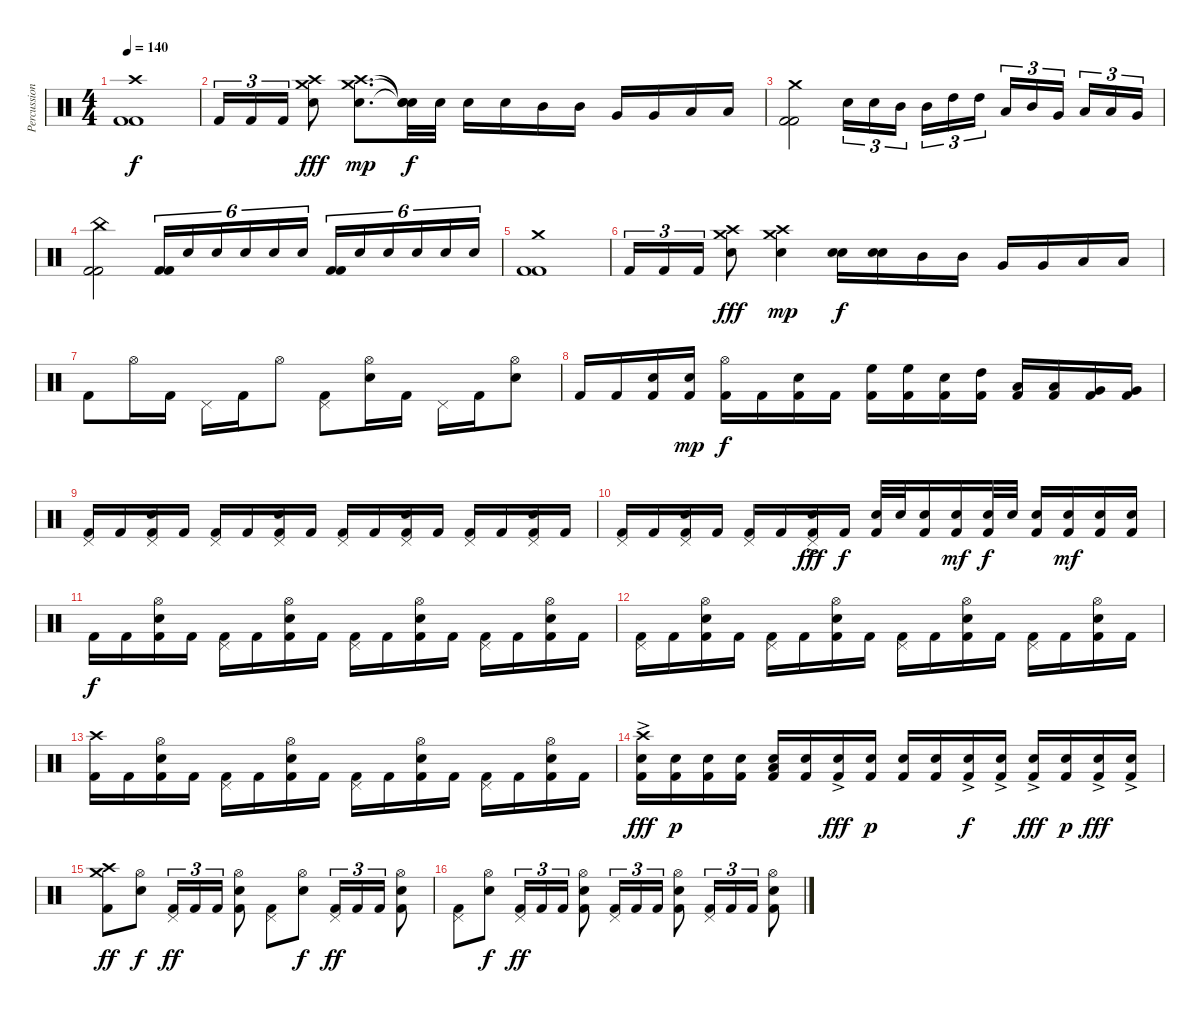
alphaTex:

\track ("Percussion" "Percussion") {instrument percussion}
\staff {score}
\articulation defaults
\ts (4 4)
\tempo 140
\clef neutral
\ks c
("Crash high (hit)" "Kick (hit) 2" "Kick (hit) 2").1{dy f} |
"Kick (hit) 2".16{tu (3 2)} "Kick (hit) 2".16{tu (3 2)} "Kick (hit) 2".16{tu (3 2)} ("Crash high (hit)" "Crash medium (hit)" "Electric Snare (hit)").8{dy fff} ("Crash high (hit)" "Crash medium (hit)" "Electric Snare (hit)").8{d dy mp} ("Snare (hit)"{t} "Snare (hit)"{t} "Snare (hit)"{t}).32{dy f} "Electric Snare (hit)".32 "Electric Snare (hit)".16 "Electric Snare (hit)".16 "Mid Tom (hit)".16 "Mid Tom (hit)".16 "Very Low Tom (hit)".16 "Very Low Tom (hit)".16 "Low Floor Tom (hit)".16 "Low Floor Tom (hit)".16 |
("Crash medium (hit)" "Kick (hit) 2" "Kick (hit) 2").2 "Electric Snare (hit)".16{tu (3 2)} "Electric Snare (hit)".16{tu (3 2)} "Mid Tom (hit)".16{tu (3 2)} "Mid Tom (hit)".16{tu (3 2)} "High Tom (hit)".16{tu (3 2)} "High Tom (hit)".16{tu (3 2)} "Low Tom (hit)".16{tu (3 2)} "Mid Tom (hit)".16{tu (3 2)} "Very Low Tom (hit)".16{tu (3 2)} "Low Tom (hit)".16{tu (3 2)} "Low Floor Tom (hit)".16{tu (3 2)} "Very Low Tom (hit)".16{tu (3 2)} |
("China (hit)" "Kick (hit) 2" "Kick (hit) 2").2 ("Kick (hit) 2" "Kick (hit) 2").16{tu (6 4)} "Electric Snare (hit)".16{tu (6 4)} "Electric Snare (hit)".16{tu (6 4)} "Electric Snare (hit)".16{tu (6 4)} "Electric Snare (hit)".16{tu (6 4)} "Electric Snare (hit)".16{tu (6 4)} ("Kick (hit) 2" "Kick (hit) 2").16{tu (6 4)} "Electric Snare (hit)".16{tu (6 4)} "Electric Snare (hit)".16{tu (6 4)} "Electric Snare (hit)".16{tu (6 4)} "Electric Snare (hit)".16{tu (6 4)} "Electric Snare (hit)".16{tu (6 4)} |
("Crash medium (hit)" "Kick (hit) 2" "Kick (hit) 2").1 |
"Kick (hit) 2".16{tu (3 2)} "Kick (hit) 2".16{tu (3 2)} "Kick (hit) 2".16{tu (3 2)} ("Crash high (hit)" "Crash medium (hit)" "Electric Snare (hit)").8{dy fff} ("Crash high (hit)" "Crash medium (hit)" "Electric Snare (hit)").4{dy mp} ("Electric Snare (hit)" "Electric Snare (hit)").16{dy f} ("Electric Snare (hit)" "Electric Snare (hit)").16 "Mid Tom (hit)".16 "Mid Tom (hit)".16 "Very Low Tom (hit)".16 "Very Low Tom (hit)".16 "Low Floor Tom (hit)".16 "Low Floor Tom (hit)".16 |
"Kick (hit) 2".8 "Hi-Hat (open)".16 "Kick (hit) 2".16 "Pedal Hi-Hat (hit)".16 "Kick (hit) 2".16 "Hi-Hat (open)".8 ("Pedal Hi-Hat (hit)" "Kick (hit) 2").8 ("Hi-Hat (open)" "Electric Snare (hit)").16 "Kick (hit) 2".16 "Pedal Hi-Hat (hit)".16 "Kick (hit) 2".16 ("Hi-Hat (open)" "Electric Snare (hit)").8 |
"Kick (hit) 2".16 "Kick (hit) 2".16 ("Electric Snare (hit)" "Kick (hit) 2").16 ("Electric Snare (hit)" "Kick (hit) 2").16{dy mp} ("Hi-Hat (open)" "Kick (hit) 2").16{dy f} "Kick (hit) 2".16 ("Electric Snare (hit)" "Kick (hit) 2").16 "Kick (hit) 2".16 ("High Floor Tom (hit)" "Kick (hit) 2").16 ("High Floor Tom (hit)" "Kick (hit) 2").16 ("Electric Snare (hit)" "Kick (hit) 2").16 ("High Tom (hit)" "Kick (hit) 2").16 ("Low Tom (hit)" "Kick (hit) 2").16 ("Low Tom (hit)" "Kick (hit) 2").16 ("Very Low Tom (hit)" "Kick (hit) 2").16 ("Very Low Tom (hit)" "Kick (hit) 2").16 |
("Pedal Hi-Hat (hit)" "Kick (hit) 2").16 "Kick (hit) 2".16 ("Pedal Hi-Hat (hit)" "Electric Snare (hit)" "Kick (hit) 2").16 "Kick (hit) 2".16 ("Pedal Hi-Hat (hit)" "Kick (hit) 2").16 "Kick (hit) 2".16 ("Pedal Hi-Hat (hit)" "Electric Snare (hit)" "Kick (hit) 2").16 "Kick (hit) 2".16 ("Pedal Hi-Hat (hit)" "Kick (hit) 2").16 "Kick (hit) 2".16 ("Pedal Hi-Hat (hit)" "Electric Snare (hit)" "Kick (hit) 2").16 "Kick (hit) 2".16 ("Pedal Hi-Hat (hit)" "Kick (hit) 2").16 "Kick (hit) 2".16 ("Pedal Hi-Hat (hit)" "Electric Snare (hit)" "Kick (hit) 2").16 "Kick (hit) 2".16 |
("Pedal Hi-Hat (hit)" "Kick (hit) 2").16 "Kick (hit) 2".16 ("Pedal Hi-Hat (hit)" "Electric Snare (hit)" "Kick (hit) 2").16 "Kick (hit) 2".16 ("Pedal Hi-Hat (hit)" "Kick (hit) 2").16 "Kick (hit) 2".16 ("Pedal Hi-Hat (hit)"{ac} "Electric Snare (hit)" "Kick (hit) 2").16{dy fff} "Kick (hit) 2".16{dy f} ("Electric Snare (hit)" "Kick (hit) 2").32 "Electric Snare (hit)".32 ("Electric Snare (hit)" "Kick (hit) 2").16 ("Electric Snare (hit)" "Kick (hit) 2").16{dy mf} ("Electric Snare (hit)" "Kick (hit) 2").32{dy f} "Electric Snare (hit)".32 ("Electric Snare (hit)" "Kick (hit) 2").16 ("Electric Snare (hit)" "Kick (hit) 2").16{dy mf} ("Electric Snare (hit)" "Kick (hit) 2").16 ("Electric Snare (hit)" "Kick (hit) 2").16 |
"Kick (hit) 2".16{dy f} "Kick (hit) 2".16 ("Hi-Hat (open)" "Electric Snare (hit)" "Kick (hit) 2").16 "Kick (hit) 2".16 ("Pedal Hi-Hat (hit)" "Kick (hit) 2").16 "Kick (hit) 2".16 ("Hi-Hat (open)" "Electric Snare (hit)" "Kick (hit) 2").16 "Kick (hit) 2".16 ("Pedal Hi-Hat (hit)" "Kick (hit) 2").16 "Kick (hit) 2".16 ("Hi-Hat (open)" "Electric Snare (hit)" "Kick (hit) 2").16 "Kick (hit) 2".16 ("Pedal Hi-Hat (hit)" "Kick (hit) 2").16 "Kick (hit) 2".16 ("Hi-Hat (open)" "Electric Snare (hit)" "Kick (hit) 2").16 "Kick (hit) 2".16 |
("Pedal Hi-Hat (hit)" "Kick (hit) 2").16 "Kick (hit) 2".16 ("Hi-Hat (open)" "Electric Snare (hit)" "Kick (hit) 2").16 "Kick (hit) 2".16 ("Pedal Hi-Hat (hit)" "Kick (hit) 2").16 "Kick (hit) 2".16 ("Hi-Hat (open)" "Electric Snare (hit)" "Kick (hit) 2").16 "Kick (hit) 2".16 ("Pedal Hi-Hat (hit)" "Kick (hit) 2").16 "Kick (hit) 2".16 ("Hi-Hat (open)" "Electric Snare (hit)" "Kick (hit) 2").16 "Kick (hit) 2".16 ("Pedal Hi-Hat (hit)" "Kick (hit) 2").16 "Kick (hit) 2".16 ("Hi-Hat (open)" "Electric Snare (hit)" "Kick (hit) 2").16 "Kick (hit) 2".16 |
("Crash high (hit)" "Kick (hit) 2").16 "Kick (hit) 2".16 ("Hi-Hat (open)" "Electric Snare (hit)" "Kick (hit) 2").16 "Kick (hit) 2".16 ("Pedal Hi-Hat (hit)" "Kick (hit) 2").16 "Kick (hit) 2".16 ("Hi-Hat (open)" "Electric Snare (hit)" "Kick (hit) 2").16 "Kick (hit) 2".16 ("Pedal Hi-Hat (hit)" "Kick (hit) 2").16 "Kick (hit) 2".16 ("Hi-Hat (open)" "Electric Snare (hit)" "Kick (hit) 2").16 "Kick (hit) 2".16 ("Pedal Hi-Hat (hit)" "Kick (hit) 2").16 "Kick (hit) 2".16 ("Hi-Hat (open)" "Electric Snare (hit)" "Kick (hit) 2").16 "Kick (hit) 2".16 |
("Crash high (hit)" "Electric Snare (hit)"{ac} "Kick (hit) 2").16{dy fff} ("Electric Snare (hit)" "Kick (hit) 2").16{dy p} ("Electric Snare (hit)" "Kick (hit) 2").16 ("Electric Snare (hit)" "Kick (hit) 2").16 ("Low Floor Tom (hit)" "Electric Snare (hit)" "Kick (hit) 2").16 ("Electric Snare (hit)" "Kick (hit) 2").16 ("Electric Snare (hit)"{ac} "Kick (hit) 2").16{dy fff} ("Electric Snare (hit)" "Kick (hit) 2").16{dy p} ("Electric Snare (hit)" "Kick (hit) 2").16 ("Electric Snare (hit)" "Kick (hit) 2").16 ("Electric Snare (hit)"{ac} "Kick (hit) 2").16{dy f} ("Electric Snare (hit)"{ac} "Kick (hit) 2").16 ("Electric Snare (hit)"{ac} "Kick (hit) 2").16{dy fff} ("Electric Snare (hit)" "Kick (hit) 2").16{dy p} ("Electric Snare (hit)"{ac} "Kick (hit) 2").16{dy fff} ("Electric Snare (hit)"{ac} "Kick (hit) 2").16 |
("Crash medium (hit)" "Crash high (hit)" "Kick (hit) 2").8{dy ff} ("Hi-Hat (open)" "Electric Snare (hit)").8{dy f} ("Pedal Hi-Hat (hit)" "Kick (hit) 2").16{tu (3 2) dy ff} "Kick (hit) 2".16{tu (3 2)} "Kick (hit) 2".16{tu (3 2)} ("Hi-Hat (open)" "Electric Snare (hit)" "Kick (hit) 2").8 ("Pedal Hi-Hat (hit)" "Kick (hit) 2").8 ("Hi-Hat (open)" "Electric Snare (hit)").8{dy f} ("Pedal Hi-Hat (hit)" "Kick (hit) 2").16{tu (3 2) dy ff} "Kick (hit) 2".16{tu (3 2)} "Kick (hit) 2".16{tu (3 2)} ("Hi-Hat (open)" "Electric Snare (hit)" "Kick (hit) 2").8 |
("Pedal Hi-Hat (hit)" "Kick (hit) 2").8 ("Hi-Hat (open)" "Electric Snare (hit)").8{dy f} ("Pedal Hi-Hat (hit)" "Kick (hit) 2").16{tu (3 2) dy ff} "Kick (hit) 2".16{tu (3 2)} "Kick (hit) 2".16{tu (3 2)} ("Hi-Hat (open)" "Electric Snare (hit)" "Kick (hit) 2").8 ("Pedal Hi-Hat (hit)" "Kick (hit) 2").16{tu (3 2)} "Kick (hit) 2".16{tu (3 2)} "Kick (hit) 2".16{tu (3 2)} ("Hi-Hat (open)" "Electric Snare (hit)" "Kick (hit) 2").8 ("Pedal Hi-Hat (hit)" "Kick (hit) 2").16{tu (3 2)} "Kick (hit) 2".16{tu (3 2)} "Kick (hit) 2".16{tu (3 2)} ("Hi-Hat (open)" "Electric Snare (hit)" "Kick (hit) 2").8
